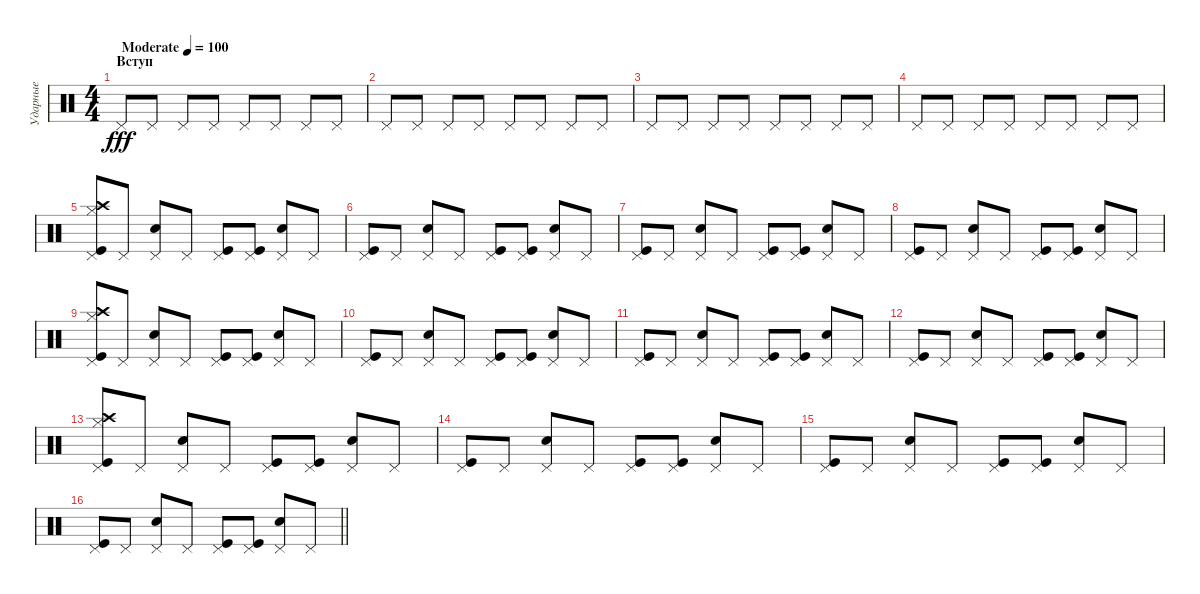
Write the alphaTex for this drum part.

\track ("Ударные" "Ударные") {instrument percussion}
\staff {score}
\articulation defaults
\ts (4 4)
\section ("" "Вступ ")
\tempo (100 "Moderate")
\clef neutral
\ks c "Pedal Hi-Hat (hit)".8{dy fff} "Pedal Hi-Hat (hit)".8 "Pedal Hi-Hat (hit)".8 "Pedal Hi-Hat (hit)".8 "Pedal Hi-Hat (hit)".8 "Pedal Hi-Hat (hit)".8 "Pedal Hi-Hat (hit)".8 "Pedal Hi-Hat (hit)".8
|
"Pedal Hi-Hat (hit)".8 "Pedal Hi-Hat (hit)".8 "Pedal Hi-Hat (hit)".8 "Pedal Hi-Hat (hit)".8 "Pedal Hi-Hat (hit)".8 "Pedal Hi-Hat (hit)".8 "Pedal Hi-Hat (hit)".8 "Pedal Hi-Hat (hit)".8 |
"Pedal Hi-Hat (hit)".8 "Pedal Hi-Hat (hit)".8 "Pedal Hi-Hat (hit)".8 "Pedal Hi-Hat (hit)".8 "Pedal Hi-Hat (hit)".8 "Pedal Hi-Hat (hit)".8 "Pedal Hi-Hat (hit)".8 "Pedal Hi-Hat (hit)".8 |
"Pedal Hi-Hat (hit)".8 "Pedal Hi-Hat (hit)".8 "Pedal Hi-Hat (hit)".8 "Pedal Hi-Hat (hit)".8 "Pedal Hi-Hat (hit)".8 "Pedal Hi-Hat (hit)".8 "Pedal Hi-Hat (hit)".8 "Pedal Hi-Hat (hit)".8 |
("Pedal Hi-Hat (hit)" "Crash high (hit)" "Hi-Hat (closed)" "Kick (hit)").8 "Pedal Hi-Hat (hit)".8 ("Pedal Hi-Hat (hit)" "Snare (hit) 2").8 "Pedal Hi-Hat (hit)".8 ("Pedal Hi-Hat (hit)" "Kick (hit)").8 ("Pedal Hi-Hat (hit)" "Kick (hit)").8 ("Pedal Hi-Hat (hit)" "Snare (hit) 2").8 "Pedal Hi-Hat (hit)".8 |
("Pedal Hi-Hat (hit)" "Kick (hit)").8 "Pedal Hi-Hat (hit)".8 ("Pedal Hi-Hat (hit)" "Snare (hit) 2").8 "Pedal Hi-Hat (hit)".8 ("Pedal Hi-Hat (hit)" "Kick (hit)").8 ("Pedal Hi-Hat (hit)" "Kick (hit)").8 ("Pedal Hi-Hat (hit)" "Snare (hit) 2").8 "Pedal Hi-Hat (hit)".8 |
("Pedal Hi-Hat (hit)" "Kick (hit)").8 "Pedal Hi-Hat (hit)".8 ("Pedal Hi-Hat (hit)" "Snare (hit) 2").8 "Pedal Hi-Hat (hit)".8 ("Pedal Hi-Hat (hit)" "Kick (hit)").8 ("Pedal Hi-Hat (hit)" "Kick (hit)").8 ("Pedal Hi-Hat (hit)" "Snare (hit) 2").8 "Pedal Hi-Hat (hit)".8 |
("Pedal Hi-Hat (hit)" "Kick (hit)").8 "Pedal Hi-Hat (hit)".8 ("Pedal Hi-Hat (hit)" "Snare (hit) 2").8 "Pedal Hi-Hat (hit)".8 ("Pedal Hi-Hat (hit)" "Kick (hit)").8 ("Pedal Hi-Hat (hit)" "Kick (hit)").8 ("Pedal Hi-Hat (hit)" "Snare (hit) 2").8 "Pedal Hi-Hat (hit)".8 |
("Pedal Hi-Hat (hit)" "Crash high (hit)" "Hi-Hat (closed)" "Kick (hit)").8 "Pedal Hi-Hat (hit)".8 ("Pedal Hi-Hat (hit)" "Snare (hit) 2").8 "Pedal Hi-Hat (hit)".8 ("Pedal Hi-Hat (hit)" "Kick (hit)").8 ("Pedal Hi-Hat (hit)" "Kick (hit)").8 ("Pedal Hi-Hat (hit)" "Snare (hit) 2").8 "Pedal Hi-Hat (hit)".8 |
("Pedal Hi-Hat (hit)" "Kick (hit)").8 "Pedal Hi-Hat (hit)".8 ("Pedal Hi-Hat (hit)" "Snare (hit) 2").8 "Pedal Hi-Hat (hit)".8 ("Pedal Hi-Hat (hit)" "Kick (hit)").8 ("Pedal Hi-Hat (hit)" "Kick (hit)").8 ("Pedal Hi-Hat (hit)" "Snare (hit) 2").8 "Pedal Hi-Hat (hit)".8 |
("Pedal Hi-Hat (hit)" "Kick (hit)").8 "Pedal Hi-Hat (hit)".8 ("Pedal Hi-Hat (hit)" "Snare (hit) 2").8 "Pedal Hi-Hat (hit)".8 ("Pedal Hi-Hat (hit)" "Kick (hit)").8 ("Pedal Hi-Hat (hit)" "Kick (hit)").8 ("Pedal Hi-Hat (hit)" "Snare (hit) 2").8 "Pedal Hi-Hat (hit)".8 |
("Pedal Hi-Hat (hit)" "Kick (hit)").8 "Pedal Hi-Hat (hit)".8 ("Pedal Hi-Hat (hit)" "Snare (hit) 2").8 "Pedal Hi-Hat (hit)".8 ("Pedal Hi-Hat (hit)" "Kick (hit)").8 ("Pedal Hi-Hat (hit)" "Kick (hit)").8 ("Pedal Hi-Hat (hit)" "Snare (hit) 2").8 "Pedal Hi-Hat (hit)".8 |
("Pedal Hi-Hat (hit)" "Crash high (hit)" "Hi-Hat (closed)" "Kick (hit)").8 "Pedal Hi-Hat (hit)".8 ("Pedal Hi-Hat (hit)" "Snare (hit) 2").8 "Pedal Hi-Hat (hit)".8 ("Pedal Hi-Hat (hit)" "Kick (hit)").8 ("Pedal Hi-Hat (hit)" "Kick (hit)").8 ("Pedal Hi-Hat (hit)" "Snare (hit) 2").8 "Pedal Hi-Hat (hit)".8 |
("Pedal Hi-Hat (hit)" "Kick (hit)").8 "Pedal Hi-Hat (hit)".8 ("Pedal Hi-Hat (hit)" "Snare (hit) 2").8 "Pedal Hi-Hat (hit)".8 ("Pedal Hi-Hat (hit)" "Kick (hit)").8 ("Pedal Hi-Hat (hit)" "Kick (hit)").8 ("Pedal Hi-Hat (hit)" "Snare (hit) 2").8 "Pedal Hi-Hat (hit)".8 |
("Pedal Hi-Hat (hit)" "Kick (hit)").8 "Pedal Hi-Hat (hit)".8 ("Pedal Hi-Hat (hit)" "Snare (hit) 2").8 "Pedal Hi-Hat (hit)".8 ("Pedal Hi-Hat (hit)" "Kick (hit)").8 ("Pedal Hi-Hat (hit)" "Kick (hit)").8 ("Pedal Hi-Hat (hit)" "Snare (hit) 2").8 "Pedal Hi-Hat (hit)".8 |
\barLineRight lightlight
("Pedal Hi-Hat (hit)" "Kick (hit)").8 "Pedal Hi-Hat (hit)".8 ("Pedal Hi-Hat (hit)" "Snare (hit) 2").8 "Pedal Hi-Hat (hit)".8 ("Pedal Hi-Hat (hit)" "Kick (hit)").8 ("Pedal Hi-Hat (hit)" "Kick (hit)").8 ("Pedal Hi-Hat (hit)" "Snare (hit) 2").8 "Pedal Hi-Hat (hit)".8
